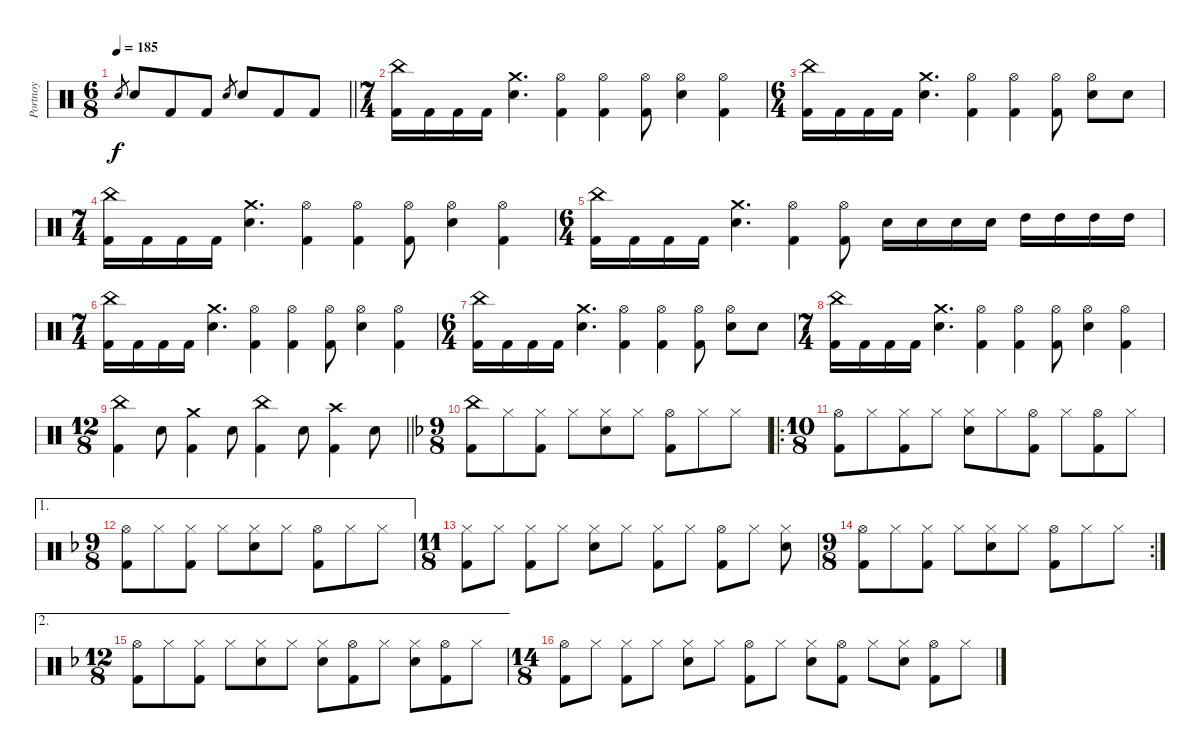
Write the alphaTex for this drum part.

\track ("Portnoy" "Portnoy") {instrument percussion}
\staff {score}
\articulation defaults
\ts (6 8)
\tempo 185
\clef neutral
\barLineRight lightlight
\ks c "Electric Snare (hit)".8{gr dy f} "Electric Snare (hit)".8 "Kick (hit) 2".8 "Kick (hit) 2".8 "Electric Snare (hit)".8{gr} "Electric Snare (hit)".8 "Kick (hit) 2".8 "Kick (hit) 2".8
|
\ts (7 4)
("China (hit)" "Kick (hit) 2").16 "Kick (hit) 2".16 "Kick (hit) 2".16 "Kick (hit) 2".16 ("Crash medium (hit)" "Electric Snare (hit)").4{d} ("Hi-Hat (open)" "Kick (hit) 2").4 ("Hi-Hat (open)" "Kick (hit) 2").4 ("Hi-Hat (open)" "Kick (hit) 2").8 ("Hi-Hat (open)" "Electric Snare (hit)").4 ("Hi-Hat (open)" "Kick (hit) 2").4 |
\ts (6 4)
("China (hit)" "Kick (hit) 2").16 "Kick (hit) 2".16 "Kick (hit) 2".16 "Kick (hit) 2".16 ("Crash medium (hit)" "Electric Snare (hit)").4{d} ("Hi-Hat (open)" "Kick (hit) 2").4 ("Hi-Hat (open)" "Kick (hit) 2").4 ("Hi-Hat (open)" "Kick (hit) 2").8 ("Hi-Hat (open)" "Electric Snare (hit)").8 "Electric Snare (hit)".8 |
\ts (7 4)
("China (hit)" "Kick (hit) 2").16 "Kick (hit) 2".16 "Kick (hit) 2".16 "Kick (hit) 2".16 ("Crash medium (hit)" "Electric Snare (hit)").4{d} ("Hi-Hat (open)" "Kick (hit) 2").4 ("Hi-Hat (open)" "Kick (hit) 2").4 ("Hi-Hat (open)" "Kick (hit) 2").8 ("Hi-Hat (open)" "Electric Snare (hit)").4 ("Hi-Hat (open)" "Kick (hit) 2").4 |
\ts (6 4)
("China (hit)" "Kick (hit) 2").16 "Kick (hit) 2".16 "Kick (hit) 2".16 "Kick (hit) 2".16 ("Crash medium (hit)" "Electric Snare (hit)").4{d} ("Hi-Hat (open)" "Kick (hit) 2").4 ("Hi-Hat (open)" "Kick (hit) 2").8 "Electric Snare (hit)".16 "Electric Snare (hit)".16 "Electric Snare (hit)".16 "Electric Snare (hit)".16 "High Tom (hit)".16 "High Tom (hit)".16 "High Tom (hit)".16 "High Tom (hit)".16 |
\ts (7 4)
("China (hit)" "Kick (hit) 2").16 "Kick (hit) 2".16 "Kick (hit) 2".16 "Kick (hit) 2".16 ("Crash medium (hit)" "Electric Snare (hit)").4{d} ("Hi-Hat (open)" "Kick (hit) 2").4 ("Hi-Hat (open)" "Kick (hit) 2").4 ("Hi-Hat (open)" "Kick (hit) 2").8 ("Hi-Hat (open)" "Electric Snare (hit)").4 ("Hi-Hat (open)" "Kick (hit) 2").4 |
\ts (6 4)
("China (hit)" "Kick (hit) 2").16 "Kick (hit) 2".16 "Kick (hit) 2".16 "Kick (hit) 2".16 ("Crash medium (hit)" "Electric Snare (hit)").4{d} ("Hi-Hat (open)" "Kick (hit) 2").4 ("Hi-Hat (open)" "Kick (hit) 2").4 ("Hi-Hat (open)" "Kick (hit) 2").8 ("Hi-Hat (open)" "Electric Snare (hit)").8 "Electric Snare (hit)".8 |
\ts (7 4)
("China (hit)" "Kick (hit) 2").16 "Kick (hit) 2".16 "Kick (hit) 2".16 "Kick (hit) 2".16 ("Crash medium (hit)" "Electric Snare (hit)").4{d} ("Hi-Hat (open)" "Kick (hit) 2").4 ("Hi-Hat (open)" "Kick (hit) 2").4 ("Hi-Hat (open)" "Kick (hit) 2").8 ("Hi-Hat (open)" "Electric Snare (hit)").4 ("Hi-Hat (open)" "Kick (hit) 2").4 |
\ts (12 8)
\barLineRight lightlight
("China (hit)" "Kick (hit) 2").4 "Electric Snare (hit)".8 ("Crash medium (hit)" "Kick (hit) 2").4 "Electric Snare (hit)".8 ("China (hit)" "Kick (hit) 2").4 "Electric Snare (hit)".8 ("Crash high (hit)" "Kick (hit) 2").4 "Electric Snare (hit)".8 |
\ts (9 8)
\ks f
("China (hit)" "Kick (hit) 2").8 "Hi-Hat (closed)".8 ("Hi-Hat (closed)" "Kick (hit) 2").8 "Hi-Hat (closed)".8 ("Hi-Hat (closed)" "Electric Snare (hit)").8 "Hi-Hat (closed)".8 ("Hi-Hat (open)" "Kick (hit) 2").8 "Hi-Hat (closed)".8 "Hi-Hat (closed)".8 |
\ro
\ts (10 8)
("Hi-Hat (open)" "Kick (hit) 2").8 "Hi-Hat (closed)".8 ("Hi-Hat (closed)" "Kick (hit) 2").8 "Hi-Hat (closed)".8 ("Hi-Hat (closed)" "Electric Snare (hit)").8 "Hi-Hat (closed)".8 ("Hi-Hat (open)" "Kick (hit) 2").8 "Hi-Hat (closed)".8 ("Hi-Hat (open)" "Kick (hit) 2").8 "Hi-Hat (closed)".8 |
\ae 1
\ts (9 8)
("Hi-Hat (open)" "Kick (hit) 2").8 "Hi-Hat (closed)".8 ("Hi-Hat (closed)" "Kick (hit) 2").8 "Hi-Hat (closed)".8 ("Hi-Hat (closed)" "Electric Snare (hit)").8 "Hi-Hat (closed)".8 ("Hi-Hat (open)" "Kick (hit) 2").8 "Hi-Hat (closed)".8 "Hi-Hat (closed)".8 |
\ts (11 8)
("Hi-Hat (closed)" "Kick (hit) 2").8 "Hi-Hat (closed)".8 ("Hi-Hat (closed)" "Kick (hit) 2").8 "Hi-Hat (closed)".8 ("Hi-Hat (closed)" "Electric Snare (hit)").8 "Hi-Hat (closed)".8 ("Hi-Hat (closed)" "Kick (hit) 2").8 "Hi-Hat (closed)".8 ("Hi-Hat (open)" "Kick (hit) 2").8 "Hi-Hat (closed)".8 ("Hi-Hat (closed)" "Electric Snare (hit)").8 |
\rc 2
\ts (9 8)
("Hi-Hat (open)" "Kick (hit) 2").8 "Hi-Hat (closed)".8 ("Hi-Hat (closed)" "Kick (hit) 2").8 "Hi-Hat (closed)".8 ("Hi-Hat (closed)" "Electric Snare (hit)").8 "Hi-Hat (closed)".8 ("Hi-Hat (open)" "Kick (hit) 2").8 "Hi-Hat (closed)".8 "Hi-Hat (closed)".8 |
\ae 2
\ts (12 8)
("Hi-Hat (open)" "Kick (hit) 2").8 "Hi-Hat (closed)".8 ("Hi-Hat (closed)" "Kick (hit) 2").8 "Hi-Hat (closed)".8 ("Hi-Hat (closed)" "Electric Snare (hit)").8 "Hi-Hat (closed)".8 ("Hi-Hat (closed)" "Electric Snare (hit)").8 ("Hi-Hat (open)" "Kick (hit) 2").8 "Hi-Hat (closed)".8 ("Hi-Hat (closed)" "Electric Snare (hit)").8 ("Hi-Hat (open)" "Kick (hit) 2").8 "Hi-Hat (closed)".8 |
\ts (14 8)
("Hi-Hat (open)" "Kick (hit) 2").8 "Hi-Hat (closed)".8 ("Hi-Hat (closed)" "Kick (hit) 2").8 "Hi-Hat (closed)".8 ("Hi-Hat (closed)" "Electric Snare (hit)").8 "Hi-Hat (closed)".8 ("Hi-Hat (open)" "Kick (hit) 2").8 "Hi-Hat (closed)".8 ("Hi-Hat (closed)" "Electric Snare (hit)").8 ("Hi-Hat (open)" "Kick (hit) 2").8 "Hi-Hat (closed)".8 ("Hi-Hat (closed)" "Electric Snare (hit)").8 ("Hi-Hat (open)" "Kick (hit) 2").8 "Hi-Hat (closed)".8
